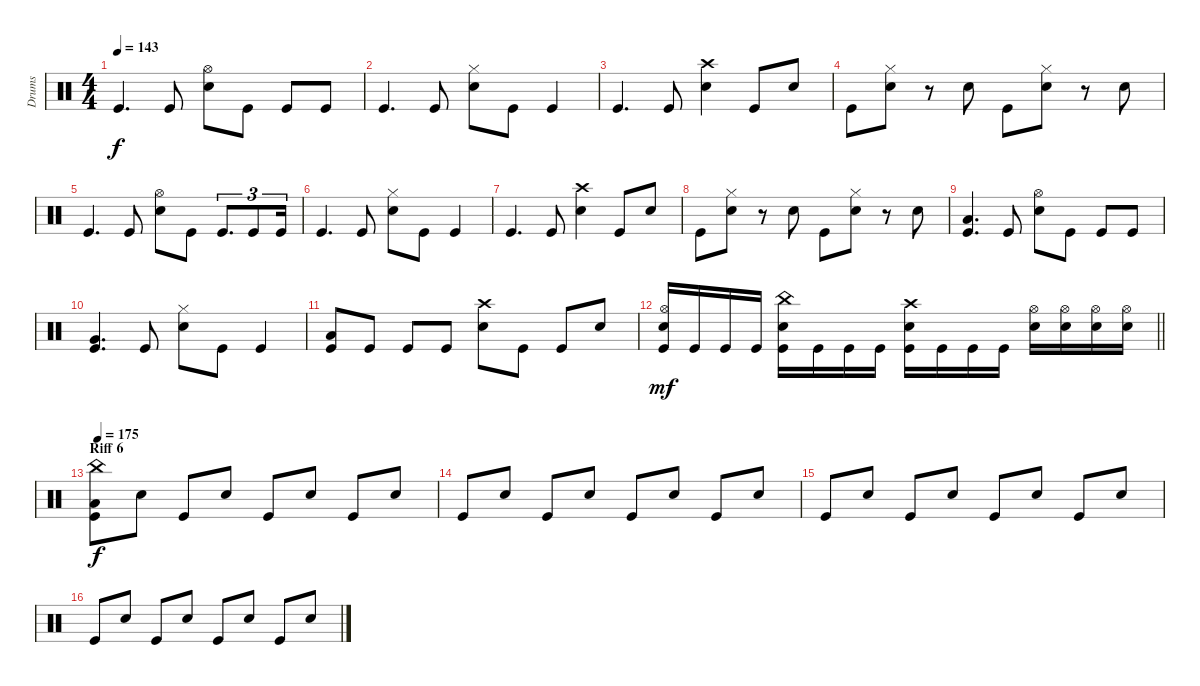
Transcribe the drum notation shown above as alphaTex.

\track ("Drums" "Drums") {instrument percussion}
\staff {score}
\articulation defaults
\ts (4 4)
\tempo 143
\clef neutral
\ks c "Kick (hit)".4{d dy f} "Kick (hit)".8
("Hi-Hat (open)" "Snare (hit) 2").8 "Kick (hit)".8 "Kick (hit)".8 "Kick (hit)".8 |
"Kick (hit)".4{d} "Kick (hit)".8 ("Hi-Hat (closed)" "Snare (hit) 2").8 "Kick (hit)".8 "Kick (hit)".4 |
"Kick (hit)".4{d} "Kick (hit)".8 ("Crash high (hit)" "Snare (hit) 2").4 "Kick (hit)".8 "Snare (hit) 2".8 |
"Kick (hit)".8 ("Hi-Hat (closed)" "Snare (hit) 2").8 r.8 "Snare (hit) 2".8 "Kick (hit)".8 ("Hi-Hat (closed)" "Snare (hit) 2").8 r.8 "Snare (hit) 2".8 |
"Kick (hit)".4{d} "Kick (hit)".8 ("Hi-Hat (open)" "Snare (hit) 2").8 "Kick (hit)".8 "Kick (hit)".8{d tu (3 2)} "Kick (hit)".8{tu (3 2)} "Kick (hit)".16{tu (3 2)} |
"Kick (hit)".4{d} "Kick (hit)".8 ("Hi-Hat (closed)" "Snare (hit) 2").8 "Kick (hit)".8 "Kick (hit)".4 |
"Kick (hit)".4{d} "Kick (hit)".8 ("Crash high (hit)" "Snare (hit) 2").4 "Kick (hit)".8 "Snare (hit) 2".8 |
"Kick (hit)".8 ("Hi-Hat (closed)" "Snare (hit) 2").8 r.8 "Snare (hit) 2".8 "Kick (hit)".8 ("Hi-Hat (closed)" "Snare (hit) 2").8 r.8 "Snare (hit) 2".8 |
("Low Floor Tom (hit)" "Kick (hit)").4{d} "Kick (hit)".8 ("Hi-Hat (open)" "Snare (hit) 2").8 "Kick (hit)".8 "Kick (hit)".8 "Kick (hit)".8 |
("Very Low Tom (hit)" "Kick (hit)").4{d} "Kick (hit)".8 ("Hi-Hat (closed)" "Snare (hit) 2").8 "Kick (hit)".8 "Kick (hit)".4 |
("Low Floor Tom (hit)" "Kick (hit)").8 "Kick (hit)".8 "Kick (hit)".8 "Kick (hit)".8 ("Crash high (hit)" "Snare (hit) 2").8 "Kick (hit)".8 "Kick (hit)".8 "Snare (hit) 2".8 |
\barLineRight lightlight
("Snare (hit) 2" "Hi-Hat (open)" "Kick (hit)").16{dy mf} "Kick (hit)".16 "Kick (hit)".16 "Kick (hit)".16 ("Snare (hit) 2" "China (hit)" "Kick (hit)").16 "Kick (hit)".16 "Kick (hit)".16 "Kick (hit)".16 ("Snare (hit) 2" "Crash high (hit)" "Kick (hit)").16 "Kick (hit)".16 "Kick (hit)".16 "Kick (hit)".16 ("Hi-Hat (open)" "Snare (hit) 2").16 ("Hi-Hat (open)" "Snare (hit) 2").16 ("Hi-Hat (open)" "Snare (hit) 2").16 ("Hi-Hat (open)" "Snare (hit) 2").16 |
\section ("" "Riff 6")
\tempo 175
("China (hit)" "Low Floor Tom (hit)" "Kick (hit)").8{dy f} "Snare (hit) 2".8 "Kick (hit)".8 "Snare (hit) 2".8 "Kick (hit)".8 "Snare (hit) 2".8 "Kick (hit)".8 "Snare (hit) 2".8 |
"Kick (hit)".8 "Snare (hit) 2".8 "Kick (hit)".8 "Snare (hit) 2".8 "Kick (hit)".8 "Snare (hit) 2".8 "Kick (hit)".8 "Snare (hit) 2".8 |
"Kick (hit)".8 "Snare (hit) 2".8 "Kick (hit)".8 "Snare (hit) 2".8 "Kick (hit)".8 "Snare (hit) 2".8 "Kick (hit)".8 "Snare (hit) 2".8 |
"Kick (hit)".8 "Snare (hit) 2".8 "Kick (hit)".8 "Snare (hit) 2".8 "Kick (hit)".8 "Snare (hit) 2".8 "Kick (hit)".8 "Snare (hit) 2".8
